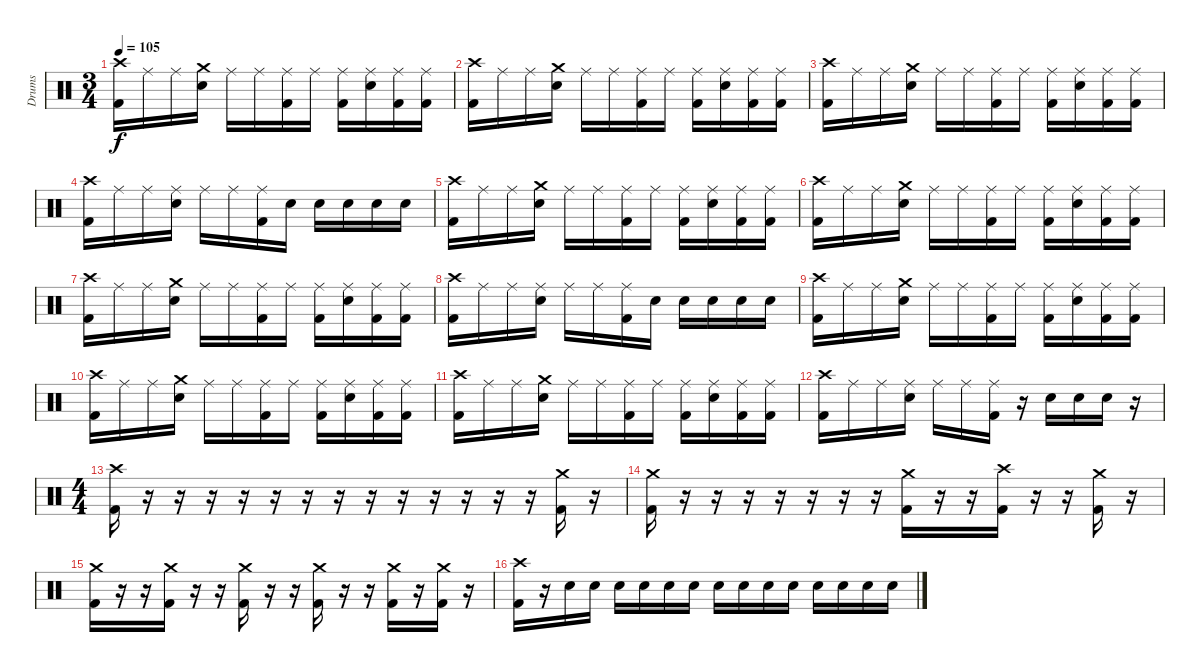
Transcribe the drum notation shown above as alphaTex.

\track ("Drums" "Drums") {instrument percussion}
\staff {score}
\articulation defaults
\ts (3 4)
\tempo 105
\clef neutral
\ks c
("Crash high (hit)" "Kick (hit) 2").16{dy f} "Ride (middle)".16 "Ride (middle)".16 ("Crash medium (hit)" "Snare (hit) 2").16 "Ride (middle)".16 "Ride (middle)".16 ("Ride (middle)" "Kick (hit) 2").16 "Ride (middle)".16 ("Ride (middle)" "Kick (hit) 2").16 ("Ride (middle)" "Snare (hit) 2").16 ("Ride (middle)" "Kick (hit) 2").16 ("Ride (middle)" "Kick (hit) 2").16 |
("Crash high (hit)" "Kick (hit) 2").16 "Ride (middle)".16 "Ride (middle)".16 ("Crash medium (hit)" "Snare (hit) 2").16 "Ride (middle)".16 "Ride (middle)".16 ("Ride (middle)" "Kick (hit) 2").16 "Ride (middle)".16 ("Ride (middle)" "Kick (hit) 2").16 ("Ride (middle)" "Snare (hit) 2").16 ("Ride (middle)" "Kick (hit) 2").16 ("Ride (middle)" "Kick (hit) 2").16 |
("Crash high (hit)" "Kick (hit) 2").16 "Ride (middle)".16 "Ride (middle)".16 ("Crash medium (hit)" "Snare (hit) 2").16 "Ride (middle)".16 "Ride (middle)".16 ("Ride (middle)" "Kick (hit) 2").16 "Ride (middle)".16 ("Ride (middle)" "Kick (hit) 2").16 ("Ride (middle)" "Snare (hit) 2").16 ("Ride (middle)" "Kick (hit) 2").16 ("Ride (middle)" "Kick (hit) 2").16 |
("Crash high (hit)" "Kick (hit) 2").16 "Ride (middle)".16 "Ride (middle)".16 ("Ride (middle)" "Snare (hit) 2").16 "Ride (middle)".16 "Ride (middle)".16 ("Ride (middle)" "Kick (hit) 2").16 "Snare (hit) 2".16 "Snare (hit) 2".16 "Snare (hit) 2".16 "Snare (hit) 2".16 "Snare (hit) 2".16 |
("Crash high (hit)" "Kick (hit) 2").16 "Ride (middle)".16 "Ride (middle)".16 ("Crash medium (hit)" "Snare (hit) 2").16 "Ride (middle)".16 "Ride (middle)".16 ("Ride (middle)" "Kick (hit) 2").16 "Ride (middle)".16 ("Ride (middle)" "Kick (hit) 2").16 ("Ride (middle)" "Snare (hit) 2").16 ("Ride (middle)" "Kick (hit) 2").16 ("Ride (middle)" "Kick (hit) 2").16 |
("Crash high (hit)" "Kick (hit) 2").16 "Ride (middle)".16 "Ride (middle)".16 ("Crash medium (hit)" "Snare (hit) 2").16 "Ride (middle)".16 "Ride (middle)".16 ("Ride (middle)" "Kick (hit) 2").16 "Ride (middle)".16 ("Ride (middle)" "Kick (hit) 2").16 ("Ride (middle)" "Snare (hit) 2").16 ("Ride (middle)" "Kick (hit) 2").16 ("Ride (middle)" "Kick (hit) 2").16 |
("Crash high (hit)" "Kick (hit) 2").16 "Ride (middle)".16 "Ride (middle)".16 ("Crash medium (hit)" "Snare (hit) 2").16 "Ride (middle)".16 "Ride (middle)".16 ("Ride (middle)" "Kick (hit) 2").16 "Ride (middle)".16 ("Ride (middle)" "Kick (hit) 2").16 ("Ride (middle)" "Snare (hit) 2").16 ("Ride (middle)" "Kick (hit) 2").16 ("Ride (middle)" "Kick (hit) 2").16 |
("Crash high (hit)" "Kick (hit) 2").16 "Ride (middle)".16 "Ride (middle)".16 ("Ride (middle)" "Snare (hit) 2").16 "Ride (middle)".16 "Ride (middle)".16 ("Ride (middle)" "Kick (hit) 2").16 "Snare (hit) 2".16 "Snare (hit) 2".16 "Snare (hit) 2".16 "Snare (hit) 2".16 "Snare (hit) 2".16 |
("Crash high (hit)" "Kick (hit) 2").16 "Ride (middle)".16 "Ride (middle)".16 ("Crash medium (hit)" "Snare (hit) 2").16 "Ride (middle)".16 "Ride (middle)".16 ("Ride (middle)" "Kick (hit) 2").16 "Ride (middle)".16 ("Ride (middle)" "Kick (hit) 2").16 ("Ride (middle)" "Snare (hit) 2").16 ("Ride (middle)" "Kick (hit) 2").16 ("Ride (middle)" "Kick (hit) 2").16 |
("Crash high (hit)" "Kick (hit) 2").16 "Ride (middle)".16 "Ride (middle)".16 ("Crash medium (hit)" "Snare (hit) 2").16 "Ride (middle)".16 "Ride (middle)".16 ("Ride (middle)" "Kick (hit) 2").16 "Ride (middle)".16 ("Ride (middle)" "Kick (hit) 2").16 ("Ride (middle)" "Snare (hit) 2").16 ("Ride (middle)" "Kick (hit) 2").16 ("Ride (middle)" "Kick (hit) 2").16 |
("Crash high (hit)" "Kick (hit) 2").16 "Ride (middle)".16 "Ride (middle)".16 ("Crash medium (hit)" "Snare (hit) 2").16 "Ride (middle)".16 "Ride (middle)".16 ("Ride (middle)" "Kick (hit) 2").16 "Ride (middle)".16 ("Ride (middle)" "Kick (hit) 2").16 ("Ride (middle)" "Snare (hit) 2").16 ("Ride (middle)" "Kick (hit) 2").16 ("Ride (middle)" "Kick (hit) 2").16 |
("Crash high (hit)" "Kick (hit) 2").16 "Ride (middle)".16 "Ride (middle)".16 ("Ride (middle)" "Snare (hit) 2").16 "Ride (middle)".16 "Ride (middle)".16 ("Ride (middle)" "Kick (hit) 2").16 r.16 "Snare (hit) 2".16 "Snare (hit) 2".16 "Snare (hit) 2".16 r.16 |
\ts (4 4)
("Crash high (hit)" "Kick (hit) 2").16 r.16 r.16 r.16 r.16 r.16 r.16 r.16 r.16 r.16 r.16 r.16 r.16 r.16 ("Crash medium (hit)" "Kick (hit) 2").16 r.16 |
("Crash medium (hit)" "Kick (hit) 2").16 r.16 r.16 r.16 r.16 r.16 r.16 r.16 ("Crash medium (hit)" "Kick (hit) 2").16 r.16 r.16 ("Crash high (hit)" "Kick (hit) 2").16 r.16 r.16 ("Crash medium (hit)" "Kick (hit) 2").16 r.16 |
("Crash medium (hit)" "Kick (hit) 2").16 r.16 r.16 ("Crash medium (hit)" "Kick (hit) 2").16 r.16 r.16 ("Crash medium (hit)" "Kick (hit) 2").16 r.16 r.16 ("Crash medium (hit)" "Kick (hit) 2").16 r.16 r.16 ("Crash medium (hit)" "Kick (hit) 2").16 r.16 ("Crash medium (hit)" "Kick (hit) 2").16 r.16 |
("Crash high (hit)" "Kick (hit) 2").16 r.16 "Snare (hit) 2".16 "Snare (hit) 2".16 "Snare (hit) 2".16 "Snare (hit) 2".16 "Snare (hit) 2".16 "Snare (hit) 2".16 "Snare (hit) 2".16 "Snare (hit) 2".16 "Snare (hit) 2".16 "Snare (hit) 2".16 "Snare (hit) 2".16 "Snare (hit) 2".16 "Snare (hit) 2".16 "Snare (hit) 2".16
